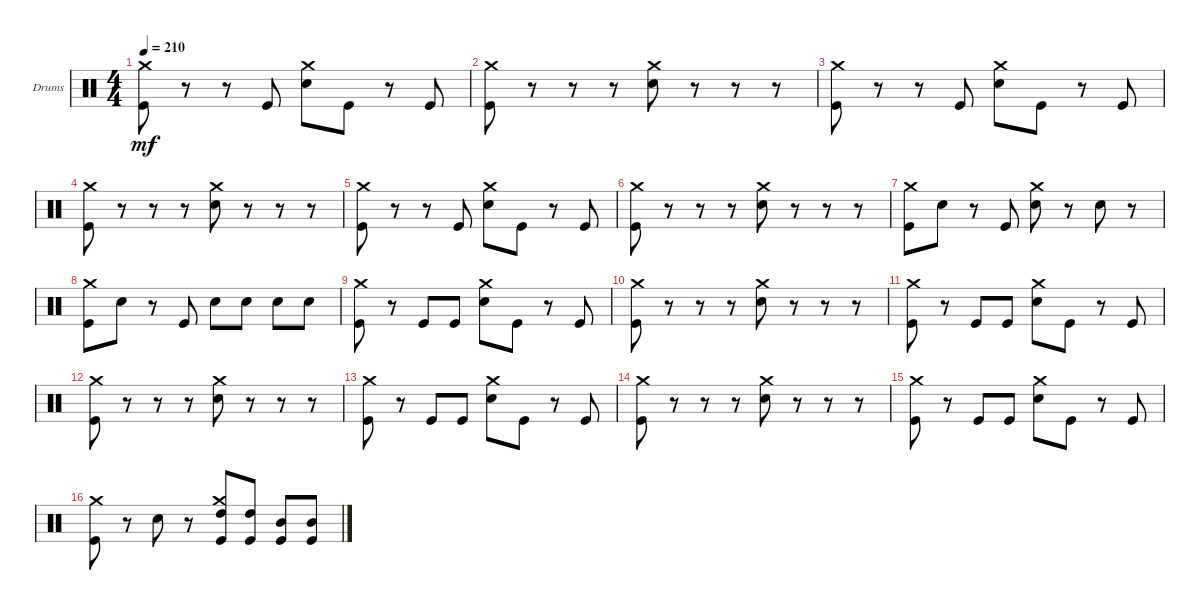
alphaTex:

\defaultSystemsLayout 4
\bracketExtendMode groupsimilarinstruments
\firstSystemTrackNameOrientation horizontal
\otherSystemsTrackNameOrientation horizontal
\track ("Dan Johnson (Drums)" "Drums") {instrument percussion}
\staff {score}
\articulation defaults
\ts (4 4)
\tempo 210
\clef neutral
\ks c
("Kick (hit)" "Crash medium (hit)").8{dy mf} r.8 r.8 "Kick (hit)".8 ("Snare (hit) 2" "Crash medium (hit)").8 "Kick (hit)".8 r.8 "Kick (hit)".8 |
("Kick (hit)" "Crash medium (hit)").8 r.8 r.8 r.8 ("Snare (hit) 2" "Crash medium (hit)").8 r.8 r.8 r.8 |
("Kick (hit)" "Crash medium (hit)").8 r.8 r.8 "Kick (hit)".8 ("Snare (hit) 2" "Crash medium (hit)").8 "Kick (hit)".8 r.8 "Kick (hit)".8 |
("Kick (hit)" "Crash medium (hit)").8 r.8 r.8 r.8 ("Snare (hit) 2" "Crash medium (hit)").8 r.8 r.8 r.8 |
("Kick (hit)" "Crash medium (hit)").8 r.8 r.8 "Kick (hit)".8 ("Snare (hit) 2" "Crash medium (hit)").8 "Kick (hit)".8 r.8 "Kick (hit)".8 |
("Kick (hit)" "Crash medium (hit)").8 r.8 r.8 r.8 ("Snare (hit) 2" "Crash medium (hit)").8 r.8 r.8 r.8 |
("Kick (hit)" "Crash medium (hit)").8 "Snare (hit) 2".8 r.8 "Kick (hit)".8 ("Snare (hit) 2" "Crash medium (hit)").8 r.8 "Snare (hit) 2".8 r.8 |
("Kick (hit)" "Crash medium (hit)").8 "Snare (hit) 2".8 r.8 "Kick (hit)".8 "Snare (hit) 2".8 "Snare (hit) 2".8 "Snare (hit) 2".8 "Snare (hit) 2".8 |
("Kick (hit)" "Crash medium (hit)").8 r.8 "Kick (hit)".8 "Kick (hit)".8 ("Snare (hit) 2" "Crash medium (hit)").8 "Kick (hit)".8 r.8 "Kick (hit)".8 |
("Kick (hit)" "Crash medium (hit)").8 r.8 r.8 r.8 ("Snare (hit) 2" "Crash medium (hit)").8 r.8 r.8 r.8 |
("Kick (hit)" "Crash medium (hit)").8 r.8 "Kick (hit)".8 "Kick (hit)".8 ("Snare (hit) 2" "Crash medium (hit)").8 "Kick (hit)".8 r.8 "Kick (hit)".8 |
("Kick (hit)" "Crash medium (hit)").8 r.8 r.8 r.8 ("Snare (hit) 2" "Crash medium (hit)").8 r.8 r.8 r.8 |
("Kick (hit)" "Crash medium (hit)").8 r.8 "Kick (hit)".8 "Kick (hit)".8 ("Snare (hit) 2" "Crash medium (hit)").8 "Kick (hit)".8 r.8 "Kick (hit)".8 |
("Kick (hit)" "Crash medium (hit)").8 r.8 r.8 r.8 ("Snare (hit) 2" "Crash medium (hit)").8 r.8 r.8 r.8 |
("Kick (hit)" "Crash medium (hit)").8 r.8 "Kick (hit)".8 "Kick (hit)".8 ("Snare (hit) 2" "Crash medium (hit)").8 "Kick (hit)".8 r.8 "Kick (hit)".8 |
("Crash medium (hit)" "Kick (hit)").8 r.8 "Snare (hit) 2".8 r.8 ("Crash medium (hit)" "High Tom (hit)" "Kick (hit)").8 ("High Tom (hit)" "Kick (hit)").8 ("Mid Tom (hit)" "Kick (hit)").8 ("Mid Tom (hit)" "Kick (hit)").8
